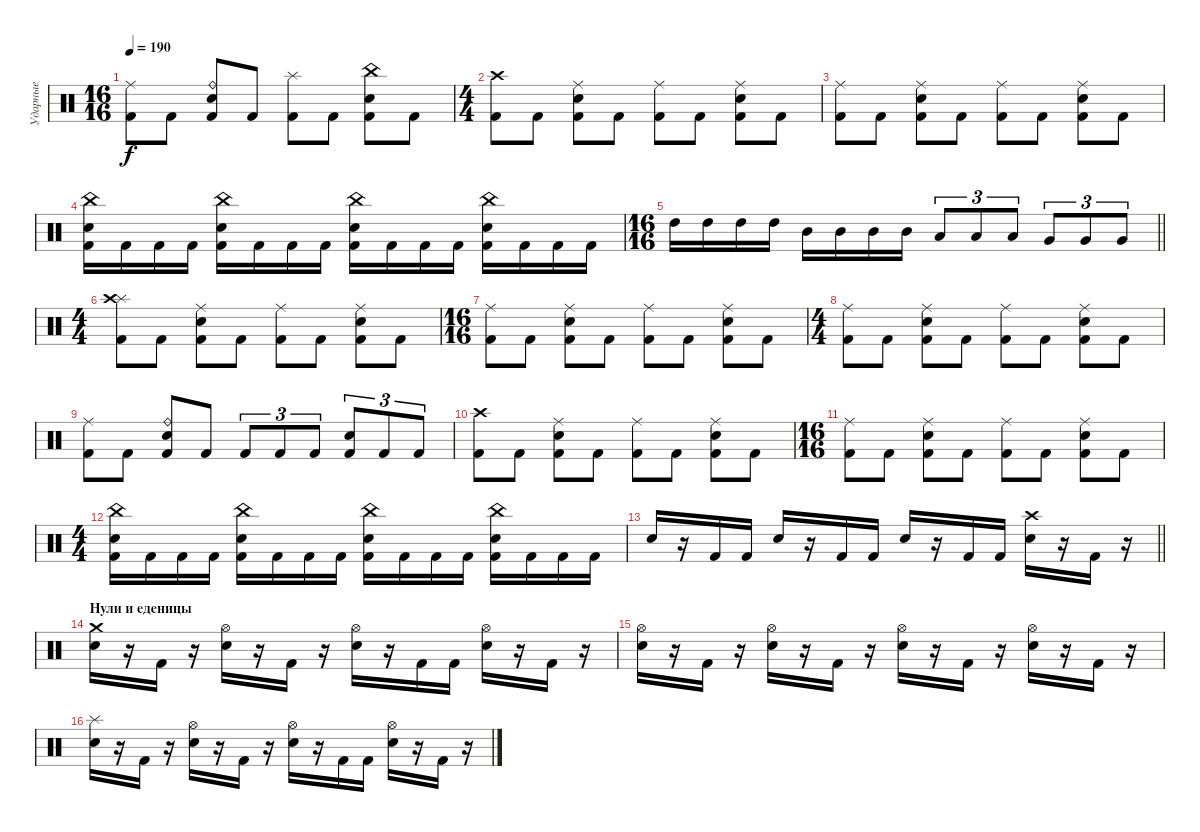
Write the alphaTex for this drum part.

\track ("Ударные" "Ударные") {instrument percussion}
\staff {score}
\articulation defaults
\ts (16 16)
\tempo 190
\clef neutral
\ks c
("Ride (middle)" "Kick (hit) 2").8{dy f} "Kick (hit) 2".8 ("Ride (bell)" "Electric Snare (hit)" "Kick (hit) 2").8 "Kick (hit) 2".8 ("Splash (hit)" "Kick (hit) 2").8 "Kick (hit) 2".8 ("China (hit)" "Electric Snare (hit)" "Kick (hit) 2").8 "Kick (hit) 2".8 |
\ts (4 4)
("Crash high (hit)" "Kick (hit) 2").8 "Kick (hit) 2".8 ("Ride (middle)" "Electric Snare (hit)" "Kick (hit) 2").8 "Kick (hit) 2".8 ("Ride (middle)" "Kick (hit) 2").8 "Kick (hit) 2".8 ("Ride (middle)" "Electric Snare (hit)" "Kick (hit) 2").8 "Kick (hit) 2".8 |
("Ride (middle)" "Kick (hit) 2").8 "Kick (hit) 2".8 ("Ride (middle)" "Electric Snare (hit)" "Kick (hit) 2").8 "Kick (hit) 2".8 ("Ride (middle)" "Kick (hit) 2").8 "Kick (hit) 2".8 ("Ride (middle)" "Electric Snare (hit)" "Kick (hit) 2").8 "Kick (hit) 2".8 |
("China (hit)" "Electric Snare (hit)" "Kick (hit) 2").16 "Kick (hit) 2".16 "Kick (hit) 2".16 "Kick (hit) 2".16 ("China (hit)" "Electric Snare (hit)" "Kick (hit) 2").16 "Kick (hit) 2".16 "Kick (hit) 2".16 "Kick (hit) 2".16 ("China (hit)" "Electric Snare (hit)" "Kick (hit) 2").16 "Kick (hit) 2".16 "Kick (hit) 2".16 "Kick (hit) 2".16 ("China (hit)" "Electric Snare (hit)" "Kick (hit) 2").16 "Kick (hit) 2".16 "Kick (hit) 2".16 "Kick (hit) 2".16 |
\ts (16 16)
\barLineRight lightlight "High Tom (hit)".16 "High Tom (hit)".16 "High Tom (hit)".16 "High Tom (hit)".16 "Mid Tom (hit)".16 "Mid Tom (hit)".16 "Mid Tom (hit)".16 "Mid Tom (hit)".16 "Low Tom (hit)".8{tu (3 2)} "Low Tom (hit)".8{tu (3 2)} "Low Tom (hit)".8{tu (3 2)} "Very Low Tom (hit)".8{tu (3 2)} "Very Low Tom (hit)".8{tu (3 2)} "Very Low Tom (hit)".8{tu (3 2)}
|
\ts (4 4)
("Splash (hit)" "Crash high (hit)" "Kick (hit) 2").8 "Kick (hit) 2".8 ("Ride (middle)" "Electric Snare (hit)" "Kick (hit) 2").8 "Kick (hit) 2".8 ("Ride (middle)" "Kick (hit) 2").8 "Kick (hit) 2".8 ("Ride (middle)" "Electric Snare (hit)" "Kick (hit) 2").8 "Kick (hit) 2".8 |
\ts (16 16)
("Ride (middle)" "Kick (hit) 2").8 "Kick (hit) 2".8 ("Ride (middle)" "Electric Snare (hit)" "Kick (hit) 2").8 "Kick (hit) 2".8 ("Ride (middle)" "Kick (hit) 2").8 "Kick (hit) 2".8 ("Ride (middle)" "Electric Snare (hit)" "Kick (hit) 2").8 "Kick (hit) 2".8 |
\ts (4 4)
("Ride (middle)" "Kick (hit) 2").8 "Kick (hit) 2".8 ("Ride (middle)" "Electric Snare (hit)" "Kick (hit) 2").8 "Kick (hit) 2".8 ("Ride (middle)" "Kick (hit) 2").8 "Kick (hit) 2".8 ("Ride (middle)" "Electric Snare (hit)" "Kick (hit) 2").8 "Kick (hit) 2".8 |
("Ride (middle)" "Kick (hit) 2").8 "Kick (hit) 2".8 ("Ride (bell)" "Electric Snare (hit)" "Kick (hit) 2").8 "Kick (hit) 2".8 "Kick (hit) 2".8{tu (3 2)} "Kick (hit) 2".8{tu (3 2)} "Kick (hit) 2".8{tu (3 2)} ("Electric Snare (hit)" "Kick (hit) 2").8{tu (3 2)} "Kick (hit) 2".8{tu (3 2)} "Kick (hit) 2".8{tu (3 2)} |
("Crash high (hit)" "Kick (hit) 2").8 "Kick (hit) 2".8 ("Ride (middle)" "Electric Snare (hit)" "Kick (hit) 2").8 "Kick (hit) 2".8 ("Ride (middle)" "Kick (hit) 2").8 "Kick (hit) 2".8 ("Ride (middle)" "Electric Snare (hit)" "Kick (hit) 2").8 "Kick (hit) 2".8 |
\ts (16 16)
("Ride (middle)" "Kick (hit) 2").8 "Kick (hit) 2".8 ("Ride (middle)" "Electric Snare (hit)" "Kick (hit) 2").8 "Kick (hit) 2".8 ("Ride (middle)" "Kick (hit) 2").8 "Kick (hit) 2".8 ("Ride (middle)" "Electric Snare (hit)" "Kick (hit) 2").8 "Kick (hit) 2".8 |
\ts (4 4)
("China (hit)" "Electric Snare (hit)" "Kick (hit) 2").16 "Kick (hit) 2".16 "Kick (hit) 2".16 "Kick (hit) 2".16 ("China (hit)" "Electric Snare (hit)" "Kick (hit) 2").16 "Kick (hit) 2".16 "Kick (hit) 2".16 "Kick (hit) 2".16 ("China (hit)" "Electric Snare (hit)" "Kick (hit) 2").16 "Kick (hit) 2".16 "Kick (hit) 2".16 "Kick (hit) 2".16 ("China (hit)" "Electric Snare (hit)" "Kick (hit) 2").16 "Kick (hit) 2".16 "Kick (hit) 2".16 "Kick (hit) 2".16 |
\barLineRight lightlight "Electric Snare (hit)".16
r.16 "Kick (hit) 2".16 "Kick (hit) 2".16 "Electric Snare (hit)".16 r.16 "Kick (hit) 2".16 "Kick (hit) 2".16 "Electric Snare (hit)".16 r.16 "Kick (hit) 2".16 "Kick (hit) 2".16 ("Electric Snare (hit)" "Crash high (hit)").16 r.16 "Kick (hit) 2".16 r.16 |
\section ("" "Нули и еденицы")
("Electric Snare (hit)" "Crash medium (hit)").16 r.16 "Kick (hit) 2".16 r.16 ("Electric Snare (hit)" "Hi-Hat (open)").16 r.16 "Kick (hit) 2".16 r.16 ("Electric Snare (hit)" "Hi-Hat (open)").16 r.16 "Kick (hit) 2".16 "Kick (hit) 2".16 ("Electric Snare (hit)" "Hi-Hat (open)").16 r.16 "Kick (hit) 2".16 r.16 |
("Electric Snare (hit)" "Hi-Hat (open)").16 r.16 "Kick (hit) 2".16 r.16 ("Electric Snare (hit)" "Hi-Hat (open)").16 r.16 "Kick (hit) 2".16 r.16 ("Electric Snare (hit)" "Hi-Hat (open)").16 r.16 "Kick (hit) 2".16 r.16 ("Electric Snare (hit)" "Hi-Hat (open)").16 r.16 "Kick (hit) 2".16 r.16 |
("Electric Snare (hit)" "Splash (hit)").16 r.16 "Kick (hit) 2".16 r.16 ("Electric Snare (hit)" "Hi-Hat (open)").16 r.16 "Kick (hit) 2".16 r.16 ("Electric Snare (hit)" "Hi-Hat (open)").16 r.16 "Kick (hit) 2".16 "Kick (hit) 2".16 ("Electric Snare (hit)" "Hi-Hat (open)").16 r.16 "Kick (hit) 2".16 r.16
